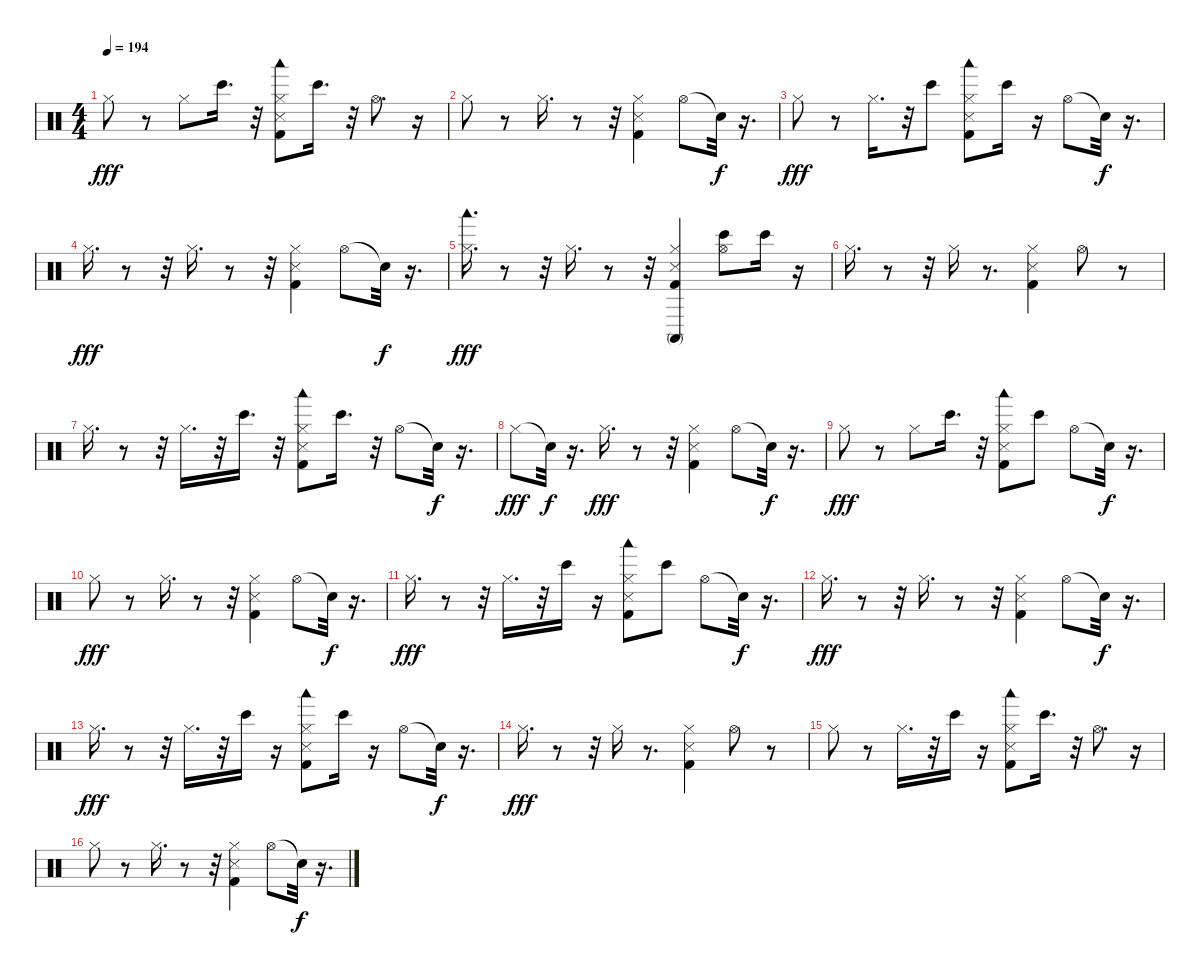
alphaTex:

\track "" {instrument percussion}
\staff {score}
\articulation defaults
\ts (4 4)
\tempo 194
\clef neutral
\ks c "Hi-Hat (closed)".8{dy fff}
r.8 "Hi-Hat (closed)".8 "Bongo High (hit)".16{d} r.32 ("Kick (hit) 2" "Hi-Hat (closed)" "Snare (side stick) 3" "Woodblock low (hit)").8 "Bongo High (hit)".16{d} r.32 "Hi-Hat (open)".8{d} r.16 |
"Hi-Hat (closed)".8 r.8 "Hi-Hat (closed)".16{d} r.8 r.32 ("Kick (hit) 2" "Snare (side stick) 3" "Hi-Hat (closed)").4 "Hi-Hat (open)".8 "Snare (hit)"{t}.32{dy f} r.16{d} |
"Hi-Hat (closed)".8{dy fff} r.8 "Hi-Hat (closed)".16{d} r.32 "Bongo High (hit)".8 ("Kick (hit) 2" "Snare (side stick) 3" "Hi-Hat (closed)" "Woodblock low (hit)").8 "Bongo High (hit)".16 r.16 "Hi-Hat (open)".8 "Snare (hit)"{t}.32{dy f} r.16{d} |
"Hi-Hat (closed)".16{d dy fff} r.8 r.32 "Hi-Hat (closed)".16{d} r.8 r.32 ("Kick (hit) 2" "Snare (side stick) 3" "Hi-Hat (closed)").4 "Hi-Hat (open)".8 "Snare (hit)"{t}.32{dy f} r.16{d} |
("Hi-Hat (closed)" "Woodblock low (hit)").16{d dy fff} r.8 r.32 "Hi-Hat (closed)".16{d} r.8 r.32 ("Kick (hit) 2" "Hi-Hat (closed)" "Snare (side stick) 3" "Conga high (mute)").4 ("Hi-Hat (open)" "Bongo High (hit)").8 "Bongo High (hit)".16 r.16 |
"Hi-Hat (closed)".16{d} r.8 r.32 "Hi-Hat (closed)".16 r.8{d} ("Snare (side stick) 3" "Kick (hit) 2" "Hi-Hat (closed)").4 "Hi-Hat (open)".8 r.8 |
"Hi-Hat (closed)".16{d} r.8 r.32 "Hi-Hat (closed)".16{d} r.32 "Bongo High (hit)".16{d} r.32 ("Snare (side stick) 3" "Kick (hit) 2" "Hi-Hat (closed)" "Woodblock low (hit)").8 "Bongo High (hit)".16{d} r.32 "Hi-Hat (open)".8 "Snare (hit)"{t}.32{dy f} r.16{d} |
"Hi-Hat (closed)".8{dy fff} "Snare (hit)"{t}.32{dy f} r.16{d} "Hi-Hat (closed)".16{d dy fff} r.8 r.32 ("Snare (side stick) 3" "Kick (hit) 2" "Hi-Hat (closed)").4 "Hi-Hat (open)".8 "Snare (hit)"{t}.32{dy f} r.16{d} |
"Hi-Hat (closed)".8{dy fff} r.8 "Hi-Hat (closed)".8 "Bongo High (hit)".16{d} r.32 ("Hi-Hat (closed)" "Snare (side stick) 3" "Kick (hit) 2" "Woodblock low (hit)").8 "Bongo High (hit)".8 "Hi-Hat (open)".8 "Snare (hit)"{t}.32{dy f} r.16{d} |
"Hi-Hat (closed)".8{dy fff} r.8 "Hi-Hat (closed)".16{d} r.8 r.32 ("Snare (side stick) 3" "Kick (hit) 2" "Hi-Hat (closed)").4 "Hi-Hat (open)".8 "Snare (hit)"{t}.32{dy f} r.16{d} |
"Hi-Hat (closed)".16{d dy fff} r.8 r.32 "Hi-Hat (closed)".16{d} r.32 "Bongo High (hit)".16 r.16 ("Snare (side stick) 3" "Kick (hit) 2" "Hi-Hat (closed)" "Woodblock low (hit)").8 "Bongo High (hit)".8 "Hi-Hat (open)".8 "Snare (hit)"{t}.32{dy f} r.16{d} |
"Hi-Hat (closed)".16{d dy fff} r.8 r.32 "Hi-Hat (closed)".16{d} r.8 r.32 ("Kick (hit) 2" "Snare (side stick) 3" "Hi-Hat (closed)").4 "Hi-Hat (open)".8 "Snare (hit)"{t}.32{dy f} r.16{d} |
"Hi-Hat (closed)".16{d dy fff} r.8 r.32 "Hi-Hat (closed)".16{d} r.32 "Bongo High (hit)".16 r.16 ("Kick (hit) 2" "Hi-Hat (closed)" "Snare (side stick) 3" "Woodblock low (hit)").8 "Bongo High (hit)".16 r.16 "Hi-Hat (open)".8 "Snare (hit)"{t}.32{dy f} r.16{d} |
"Hi-Hat (closed)".16{d dy fff} r.8 r.32 "Hi-Hat (closed)".16 r.8{d} ("Kick (hit) 2" "Snare (side stick) 3" "Hi-Hat (closed)").4 "Hi-Hat (open)".8 r.8 |
"Hi-Hat (closed)".8 r.8 "Hi-Hat (closed)".16{d} r.32 "Bongo High (hit)".16 r.16 ("Woodblock low (hit)" "Kick (hit) 2" "Snare (side stick) 3" "Hi-Hat (closed)").8 "Bongo High (hit)".16{d} r.32 "Hi-Hat (open)".8{d} r.16 |
"Hi-Hat (closed)".8 r.8 "Hi-Hat (closed)".16{d} r.8 r.32 ("Kick (hit) 2" "Snare (side stick) 3" "Hi-Hat (closed)").4 "Hi-Hat (open)".8 "Snare (hit)"{t}.32{dy f} r.16{d}
